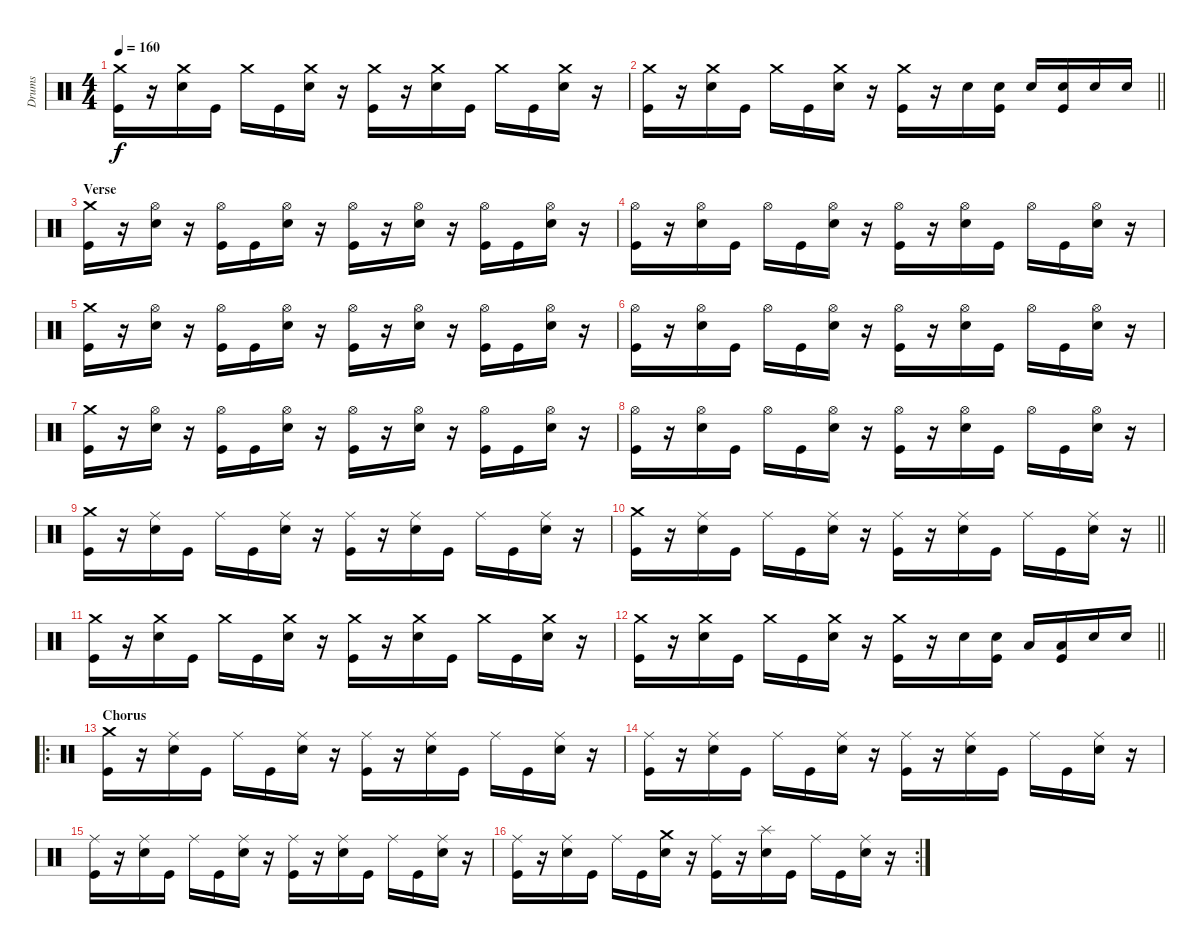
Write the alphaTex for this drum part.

\track ("Drums" "Drums") {instrument percussion}
\staff {score}
\articulation defaults
\ts (4 4)
\tempo 160
\clef neutral
\ks c
("Crash medium (hit)" "Kick (hit)").16{dy f} r.16 ("Crash medium (hit)" "Electric Snare (hit)").16 "Kick (hit)".16 "Crash medium (hit)".16 "Kick (hit)".16 ("Crash medium (hit)" "Electric Snare (hit)").16 r.16 ("Crash medium (hit)" "Kick (hit)").16 r.16 ("Crash medium (hit)" "Electric Snare (hit)").16 "Kick (hit)".16 "Crash medium (hit)".16 "Kick (hit)".16 ("Crash medium (hit)" "Electric Snare (hit)").16 r.16 |
\barLineRight lightlight
("Crash medium (hit)" "Kick (hit)").16 r.16 ("Crash medium (hit)" "Electric Snare (hit)").16 "Kick (hit)".16 "Crash medium (hit)".16 "Kick (hit)".16 ("Crash medium (hit)" "Electric Snare (hit)").16 r.16 ("Crash medium (hit)" "Kick (hit)").16 r.16 "Electric Snare (hit)".16 ("Electric Snare (hit)" "Kick (hit)").16 "Electric Snare (hit)".16 ("Electric Snare (hit)" "Kick (hit)").16 "Electric Snare (hit)".16 "Electric Snare (hit)".16 |
\section ("" "Verse")
("Crash medium (hit)" "Kick (hit)").16 r.16 ("Hi-Hat (open)" "Electric Snare (hit)").16 r.16 ("Hi-Hat (open)" "Kick (hit)").16 "Kick (hit)".16 ("Hi-Hat (open)" "Electric Snare (hit)").16 r.16 ("Hi-Hat (open)" "Kick (hit)").16 r.16 ("Hi-Hat (open)" "Electric Snare (hit)").16 r.16 ("Hi-Hat (open)" "Kick (hit)").16 "Kick (hit)".16 ("Hi-Hat (open)" "Electric Snare (hit)").16 r.16 |
("Hi-Hat (open)" "Kick (hit)").16 r.16 ("Hi-Hat (open)" "Electric Snare (hit)").16 "Kick (hit)".16 "Hi-Hat (open)".16 "Kick (hit)".16 ("Hi-Hat (open)" "Electric Snare (hit)").16 r.16 ("Hi-Hat (open)" "Kick (hit)").16 r.16 ("Hi-Hat (open)" "Electric Snare (hit)").16 "Kick (hit)".16 "Hi-Hat (open)".16 "Kick (hit)".16 ("Hi-Hat (open)" "Electric Snare (hit)").16 r.16 |
("Crash medium (hit)" "Kick (hit)").16 r.16 ("Hi-Hat (open)" "Electric Snare (hit)").16 r.16 ("Hi-Hat (open)" "Kick (hit)").16 "Kick (hit)".16 ("Hi-Hat (open)" "Electric Snare (hit)").16 r.16 ("Hi-Hat (open)" "Kick (hit)").16 r.16 ("Hi-Hat (open)" "Electric Snare (hit)").16 r.16 ("Hi-Hat (open)" "Kick (hit)").16 "Kick (hit)".16 ("Hi-Hat (open)" "Electric Snare (hit)").16 r.16 |
("Hi-Hat (open)" "Kick (hit)").16 r.16 ("Hi-Hat (open)" "Electric Snare (hit)").16 "Kick (hit)".16 "Hi-Hat (open)".16 "Kick (hit)".16 ("Hi-Hat (open)" "Electric Snare (hit)").16 r.16 ("Hi-Hat (open)" "Kick (hit)").16 r.16 ("Hi-Hat (open)" "Electric Snare (hit)").16 "Kick (hit)".16 "Hi-Hat (open)".16 "Kick (hit)".16 ("Hi-Hat (open)" "Electric Snare (hit)").16 r.16 |
("Crash medium (hit)" "Kick (hit)").16 r.16 ("Hi-Hat (open)" "Electric Snare (hit)").16 r.16 ("Hi-Hat (open)" "Kick (hit)").16 "Kick (hit)".16 ("Hi-Hat (open)" "Electric Snare (hit)").16 r.16 ("Hi-Hat (open)" "Kick (hit)").16 r.16 ("Hi-Hat (open)" "Electric Snare (hit)").16 r.16 ("Hi-Hat (open)" "Kick (hit)").16 "Kick (hit)".16 ("Hi-Hat (open)" "Electric Snare (hit)").16 r.16 |
("Hi-Hat (open)" "Kick (hit)").16 r.16 ("Hi-Hat (open)" "Electric Snare (hit)").16 "Kick (hit)".16 "Hi-Hat (open)".16 "Kick (hit)".16 ("Hi-Hat (open)" "Electric Snare (hit)").16 r.16 ("Hi-Hat (open)" "Kick (hit)").16 r.16 ("Hi-Hat (open)" "Electric Snare (hit)").16 "Kick (hit)".16 "Hi-Hat (open)".16 "Kick (hit)".16 ("Hi-Hat (open)" "Electric Snare (hit)").16 r.16 |
("Crash medium (hit)" "Kick (hit)").16 r.16 ("Ride (middle)" "Electric Snare (hit)").16 "Kick (hit)".16 "Ride (middle)".16 "Kick (hit)".16 ("Ride (middle)" "Electric Snare (hit)").16 r.16 ("Ride (middle)" "Kick (hit)").16 r.16 ("Ride (middle)" "Electric Snare (hit)").16 "Kick (hit)".16 "Ride (middle)".16 "Kick (hit)".16 ("Ride (middle)" "Electric Snare (hit)").16 r.16 |
\barLineRight lightlight
("Crash medium (hit)" "Kick (hit)").16 r.16 ("Ride (middle)" "Electric Snare (hit)").16 "Kick (hit)".16 "Ride (middle)".16 "Kick (hit)".16 ("Ride (middle)" "Electric Snare (hit)").16 r.16 ("Ride (middle)" "Kick (hit)").16 r.16 ("Ride (middle)" "Electric Snare (hit)").16 "Kick (hit)".16 "Ride (middle)".16 "Kick (hit)".16 ("Ride (middle)" "Electric Snare (hit)").16 r.16 |
("Crash medium (hit)" "Kick (hit)").16 r.16 ("Crash medium (hit)" "Electric Snare (hit)").16 "Kick (hit)".16 "Crash medium (hit)".16 "Kick (hit)".16 ("Crash medium (hit)" "Electric Snare (hit)").16 r.16 ("Crash medium (hit)" "Kick (hit)").16 r.16 ("Crash medium (hit)" "Electric Snare (hit)").16 "Kick (hit)".16 "Crash medium (hit)".16 "Kick (hit)".16 ("Crash medium (hit)" "Electric Snare (hit)").16 r.16 |
\barLineRight lightlight
("Crash medium (hit)" "Kick (hit)").16 r.16 ("Crash medium (hit)" "Electric Snare (hit)").16 "Kick (hit)".16 "Crash medium (hit)".16 "Kick (hit)".16 ("Crash medium (hit)" "Electric Snare (hit)").16 r.16 ("Crash medium (hit)" "Kick (hit)").16 r.16 "Electric Snare (hit)".16 ("Electric Snare (hit)" "Kick (hit)").16 "Low Tom (hit)".16 ("Low Tom (hit)" "Kick (hit)").16 "Electric Snare (hit)".16 "Electric Snare (hit)".16 |
\ro
\section ("" "Chorus")
("Crash medium (hit)" "Kick (hit)").16 r.16 ("Ride (middle)" "Electric Snare (hit)").16 "Kick (hit)".16 "Ride (middle)".16 "Kick (hit)".16 ("Ride (middle)" "Electric Snare (hit)").16 r.16 ("Ride (middle)" "Kick (hit)").16 r.16 ("Ride (middle)" "Electric Snare (hit)").16 "Kick (hit)".16 "Ride (middle)".16 "Kick (hit)".16 ("Ride (middle)" "Electric Snare (hit)").16 r.16 |
("Ride (middle)" "Kick (hit)").16 r.16 ("Ride (middle)" "Electric Snare (hit)").16 "Kick (hit)".16 "Ride (middle)".16 "Kick (hit)".16 ("Ride (middle)" "Electric Snare (hit)").16 r.16 ("Ride (middle)" "Kick (hit)").16 r.16 ("Ride (middle)" "Electric Snare (hit)").16 "Kick (hit)".16 "Ride (middle)".16 "Kick (hit)".16 ("Ride (middle)" "Electric Snare (hit)").16 r.16 |
("Ride (middle)" "Kick (hit)").16 r.16 ("Ride (middle)" "Electric Snare (hit)").16 "Kick (hit)".16 "Ride (middle)".16 "Kick (hit)".16 ("Ride (middle)" "Electric Snare (hit)").16 r.16 ("Ride (middle)" "Kick (hit)").16 r.16 ("Ride (middle)" "Electric Snare (hit)").16 "Kick (hit)".16 "Ride (middle)".16 "Kick (hit)".16 ("Ride (middle)" "Electric Snare (hit)").16 r.16 |
\rc 2
("Ride (middle)" "Kick (hit)").16 r.16 ("Ride (middle)" "Electric Snare (hit)").16 "Kick (hit)".16 "Ride (middle)".16 "Kick (hit)".16 ("Crash medium (hit)" "Electric Snare (hit)").16 r.16 ("Ride (middle)" "Kick (hit)").16 r.16 ("Splash (hit)" "Electric Snare (hit)").16 "Kick (hit)".16 "Ride (middle)".16 "Kick (hit)".16 ("Ride (middle)" "Electric Snare (hit)").16 r.16
